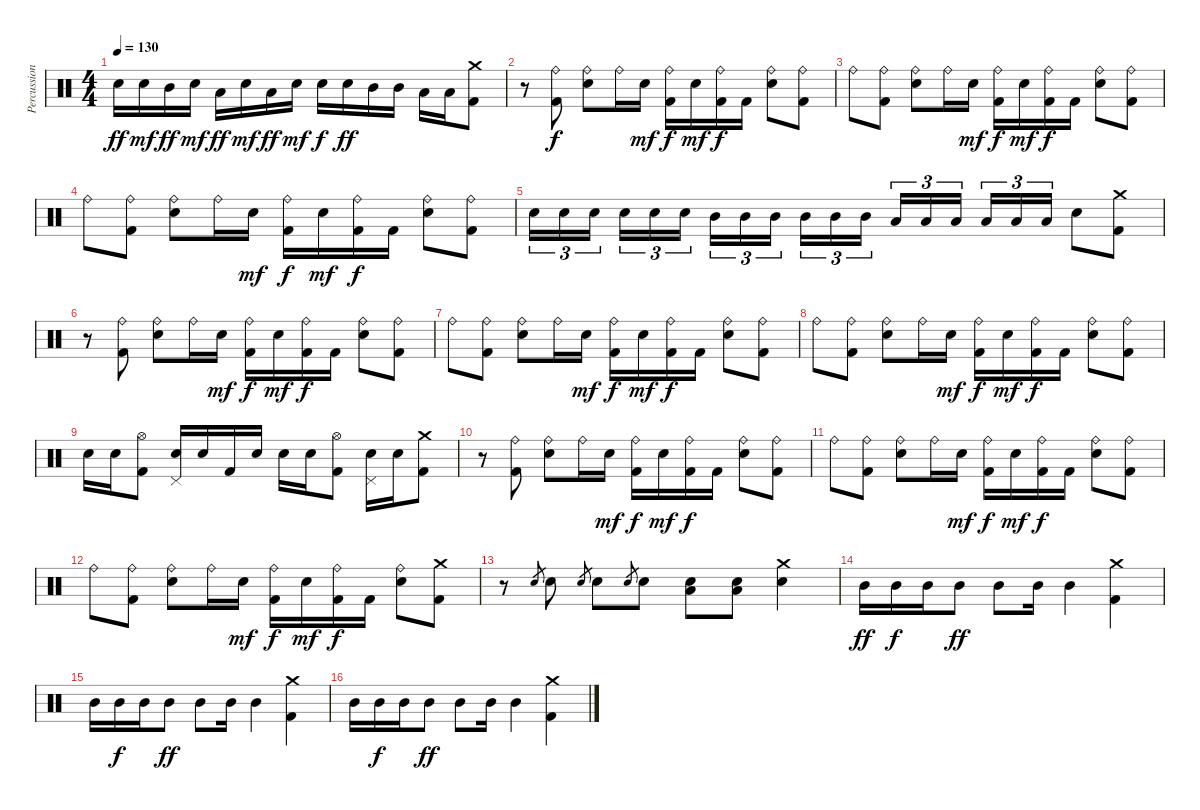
\track ("Percussion" "Percussion") {instrument percussion}
\staff {score}
\articulation defaults
\ts (4 4)
\tempo 130
\clef neutral
\ks c "Electric Snare (hit)".16{dy ff} "Electric Snare (hit)".16{dy mf} "Mid Tom (hit)".16{dy ff} "Electric Snare (hit)".16{dy mf} "Low Tom (hit)".16{dy ff} "Electric Snare (hit)".16{dy mf} "Low Tom (hit)".16{dy ff} "Electric Snare (hit)".16{dy mf} "Electric Snare (hit)".16{dy f} "Electric Snare (hit)".16{dy ff} "Mid Tom (hit)".16 "Mid Tom (hit)".16 "Low Tom (hit)".16 "Low Tom (hit)".16
("Kick (hit) 2" "Crash medium (hit)").8 |
r.8 ("Kick (hit) 2" "Ride (bell)").8{dy f} ("Electric Snare (hit)" "Ride (bell)").8 "Ride (bell)".16 "Electric Snare (hit)".16{dy mf} ("Kick (hit) 2" "Ride (bell)").16{dy f} "Electric Snare (hit)".16{dy mf} ("Kick (hit) 2" "Ride (bell)").16{dy f} "Kick (hit) 2".16 ("Electric Snare (hit)" "Ride (bell)").8 ("Kick (hit) 2" "Ride (bell)").8 |
"Ride (bell)".8 ("Kick (hit) 2" "Ride (bell)").8 ("Electric Snare (hit)" "Ride (bell)").8 "Ride (bell)".16 "Electric Snare (hit)".16{dy mf} ("Kick (hit) 2" "Ride (bell)").16{dy f} "Electric Snare (hit)".16{dy mf} ("Kick (hit) 2" "Ride (bell)").16{dy f} "Kick (hit) 2".16 ("Electric Snare (hit)" "Ride (bell)").8 ("Kick (hit) 2" "Ride (bell)").8 |
"Ride (bell)".8 ("Kick (hit) 2" "Ride (bell)").8 ("Electric Snare (hit)" "Ride (bell)").8 "Ride (bell)".16 "Electric Snare (hit)".16{dy mf} ("Kick (hit) 2" "Ride (bell)").16{dy f} "Electric Snare (hit)".16{dy mf} ("Kick (hit) 2" "Ride (bell)").16{dy f} "Kick (hit) 2".16 ("Electric Snare (hit)" "Ride (bell)").8 ("Kick (hit) 2" "Ride (bell)").8 |
"Electric Snare (hit)".16{tu (3 2)} "Electric Snare (hit)".16{tu (3 2)} "Electric Snare (hit)".16{tu (3 2)} "Electric Snare (hit)".16{tu (3 2)} "Electric Snare (hit)".16{tu (3 2)} "Electric Snare (hit)".16{tu (3 2)} "Mid Tom (hit)".16{tu (3 2)} "Mid Tom (hit)".16{tu (3 2)} "Mid Tom (hit)".16{tu (3 2)} "Mid Tom (hit)".16{tu (3 2)} "Mid Tom (hit)".16{tu (3 2)} "Mid Tom (hit)".16{tu (3 2)} "Low Tom (hit)".16{tu (3 2)} "Low Tom (hit)".16{tu (3 2)} "Low Tom (hit)".16{tu (3 2)} "Low Tom (hit)".16{tu (3 2)} "Low Tom (hit)".16{tu (3 2)} "Low Tom (hit)".16{tu (3 2)} "Electric Snare (hit)".8 ("Kick (hit) 2" "Crash medium (hit)").8 |
r.8 ("Kick (hit) 2" "Ride (bell)").8 ("Electric Snare (hit)" "Ride (bell)").8 "Ride (bell)".16 "Electric Snare (hit)".16{dy mf} ("Kick (hit) 2" "Ride (bell)").16{dy f} "Electric Snare (hit)".16{dy mf} ("Kick (hit) 2" "Ride (bell)").16{dy f} "Kick (hit) 2".16 ("Electric Snare (hit)" "Ride (bell)").8 ("Kick (hit) 2" "Ride (bell)").8 |
"Ride (bell)".8 ("Kick (hit) 2" "Ride (bell)").8 ("Electric Snare (hit)" "Ride (bell)").8 "Ride (bell)".16 "Electric Snare (hit)".16{dy mf} ("Kick (hit) 2" "Ride (bell)").16{dy f} "Electric Snare (hit)".16{dy mf} ("Kick (hit) 2" "Ride (bell)").16{dy f} "Kick (hit) 2".16 ("Electric Snare (hit)" "Ride (bell)").8 ("Kick (hit) 2" "Ride (bell)").8 |
"Ride (bell)".8 ("Kick (hit) 2" "Ride (bell)").8 ("Electric Snare (hit)" "Ride (bell)").8 "Ride (bell)".16 "Electric Snare (hit)".16{dy mf} ("Kick (hit) 2" "Ride (bell)").16{dy f} "Electric Snare (hit)".16{dy mf} ("Kick (hit) 2" "Ride (bell)").16{dy f} "Kick (hit) 2".16 ("Electric Snare (hit)" "Ride (bell)").8 ("Kick (hit) 2" "Ride (bell)").8 |
"Electric Snare (hit)".16 "Electric Snare (hit)".16 ("Kick (hit) 2" "Hi-Hat (open)").8 ("Electric Snare (hit)" "Pedal Hi-Hat (hit)").16 "Electric Snare (hit)".16 "Kick (hit) 2".16 "Electric Snare (hit)".16 "Electric Snare (hit)".16 "Electric Snare (hit)".16 ("Kick (hit) 2" "Hi-Hat (open)").8 ("Electric Snare (hit)" "Pedal Hi-Hat (hit)").16 "Electric Snare (hit)".16 ("Kick (hit) 2" "Crash medium (hit)").8 |
r.8 ("Kick (hit) 2" "Ride (bell)").8 ("Electric Snare (hit)" "Ride (bell)").8 "Ride (bell)".16 "Electric Snare (hit)".16{dy mf} ("Kick (hit) 2" "Ride (bell)").16{dy f} "Electric Snare (hit)".16{dy mf} ("Kick (hit) 2" "Ride (bell)").16{dy f} "Kick (hit) 2".16 ("Electric Snare (hit)" "Ride (bell)").8 ("Kick (hit) 2" "Ride (bell)").8 |
"Ride (bell)".8 ("Kick (hit) 2" "Ride (bell)").8 ("Electric Snare (hit)" "Ride (bell)").8 "Ride (bell)".16 "Electric Snare (hit)".16{dy mf} ("Kick (hit) 2" "Ride (bell)").16{dy f} "Electric Snare (hit)".16{dy mf} ("Kick (hit) 2" "Ride (bell)").16{dy f} "Kick (hit) 2".16 ("Electric Snare (hit)" "Ride (bell)").8 ("Kick (hit) 2" "Ride (bell)").8 |
"Ride (bell)".8 ("Kick (hit) 2" "Ride (bell)").8 ("Electric Snare (hit)" "Ride (bell)").8 "Ride (bell)".16 "Electric Snare (hit)".16{dy mf} ("Kick (hit) 2" "Ride (bell)").16{dy f} "Electric Snare (hit)".16{dy mf} ("Kick (hit) 2" "Ride (bell)").16{dy f} "Kick (hit) 2".16 ("Electric Snare (hit)" "Ride (bell)").8 ("Kick (hit) 2" "Crash medium (hit)").8 |
r.8 "Electric Snare (hit)".8{gr} "Electric Snare (hit)".8 "Electric Snare (hit)".8{gr} "Electric Snare (hit)".8 "Electric Snare (hit)".8{gr} "Electric Snare (hit)".8 ("Electric Snare (hit)" "Low Floor Tom (hit)").8 ("Electric Snare (hit)" "Low Floor Tom (hit)").8 ("Electric Snare (hit)" "Crash medium (hit)").4 |
"Mid Tom (hit)".16{dy ff} "Mid Tom (hit)".16{dy f} "Mid Tom (hit)".16 "Mid Tom (hit)".8{dy ff} "Mid Tom (hit)".8 "Mid Tom (hit)".16 "Mid Tom (hit)".4 ("Kick (hit) 2" "Crash medium (hit)").4 |
"Mid Tom (hit)".16 "Mid Tom (hit)".16{dy f} "Mid Tom (hit)".16 "Mid Tom (hit)".8{dy ff} "Mid Tom (hit)".8 "Mid Tom (hit)".16 "Mid Tom (hit)".4 ("Kick (hit) 2" "Crash medium (hit)").4 |
"Mid Tom (hit)".16 "Mid Tom (hit)".16{dy f} "Mid Tom (hit)".16 "Mid Tom (hit)".8{dy ff} "Mid Tom (hit)".8 "Mid Tom (hit)".16 "Mid Tom (hit)".4 ("Kick (hit) 2" "Crash medium (hit)").4
